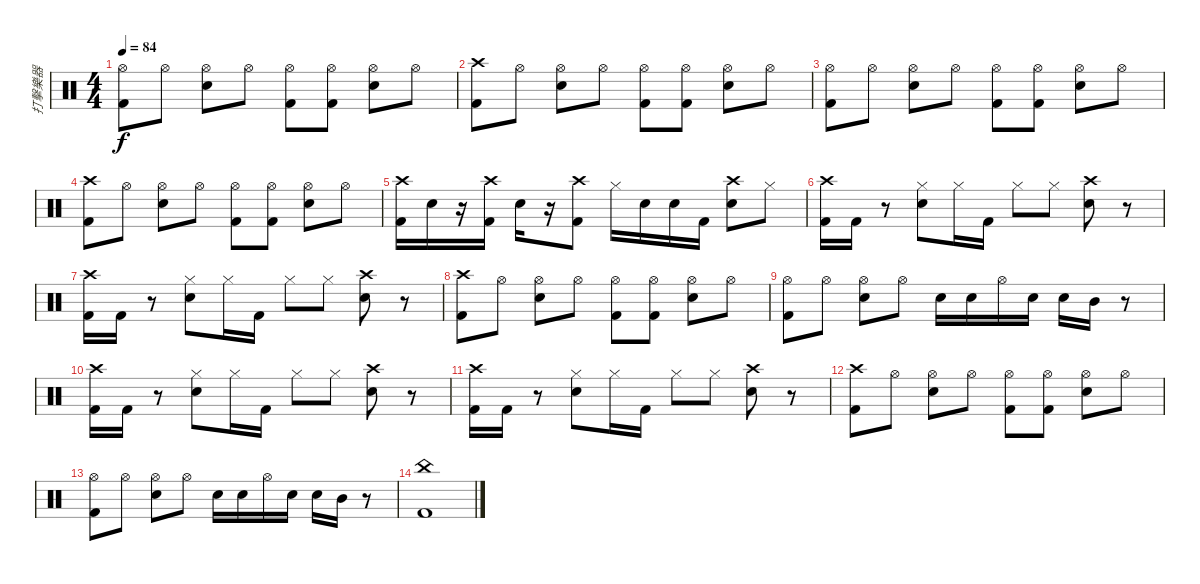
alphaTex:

\track ("打擊樂器" "打擊樂器") {instrument percussion}
\staff {score}
\articulation defaults
\ts (4 4)
\tempo 84
\clef neutral
\ks c
("Hi-Hat (open)" "Kick (hit) 2").8{dy f} "Hi-Hat (open)".8 ("Hi-Hat (open)" "Snare (hit) 2").8 "Hi-Hat (open)".8 ("Hi-Hat (open)" "Kick (hit) 2").8 ("Hi-Hat (open)" "Kick (hit) 2").8 ("Hi-Hat (open)" "Snare (hit) 2").8 "Hi-Hat (open)".8 |
("Crash high (hit)" "Kick (hit) 2").8 "Hi-Hat (open)".8 ("Hi-Hat (open)" "Snare (hit) 2").8 "Hi-Hat (open)".8 ("Hi-Hat (open)" "Kick (hit) 2").8 ("Hi-Hat (open)" "Kick (hit) 2").8 ("Hi-Hat (open)" "Snare (hit) 2").8 "Hi-Hat (open)".8 |
("Hi-Hat (open)" "Kick (hit) 2").8 "Hi-Hat (open)".8 ("Hi-Hat (open)" "Snare (hit) 2").8 "Hi-Hat (open)".8 ("Hi-Hat (open)" "Kick (hit) 2").8 ("Hi-Hat (open)" "Kick (hit) 2").8 ("Hi-Hat (open)" "Snare (hit) 2").8 "Hi-Hat (open)".8 |
("Crash high (hit)" "Kick (hit) 2").8 "Hi-Hat (open)".8 ("Hi-Hat (open)" "Snare (hit) 2").8 "Hi-Hat (open)".8 ("Hi-Hat (open)" "Kick (hit) 2").8 ("Hi-Hat (open)" "Kick (hit) 2").8 ("Hi-Hat (open)" "Snare (hit) 2").8 "Hi-Hat (open)".8 |
("Crash high (hit)" "Kick (hit) 2").16 "Snare (hit) 2".16 r.16 ("Crash high (hit)" "Kick (hit) 2").16 "Snare (hit) 2".16 r.16 ("Crash high (hit)" "Kick (hit) 2").8 "Hi-Hat (closed)".16 "Snare (hit) 2".16 "Snare (hit) 2".16 "Kick (hit) 2".16 ("Crash high (hit)" "Snare (hit) 2").8 "Hi-Hat (closed)".8 |
("Crash high (hit)" "Kick (hit) 2").16 "Kick (hit) 2".16 r.8 ("Hi-Hat (closed)" "Snare (hit) 2").8 "Hi-Hat (closed)".16 "Kick (hit) 2".16 "Hi-Hat (closed)".8 "Hi-Hat (closed)".8 ("Crash high (hit)" "Snare (hit) 2").8 r.8 |
("Crash high (hit)" "Kick (hit) 2").16 "Kick (hit) 2".16 r.8 ("Hi-Hat (closed)" "Snare (hit) 2").8 "Hi-Hat (closed)".16 "Kick (hit) 2".16 "Hi-Hat (closed)".8 "Hi-Hat (closed)".8 ("Crash high (hit)" "Snare (hit) 2").8 r.8 |
("Crash high (hit)" "Kick (hit) 2").8 "Hi-Hat (open)".8 ("Hi-Hat (open)" "Snare (hit) 2").8 "Hi-Hat (open)".8 ("Hi-Hat (open)" "Kick (hit) 2").8 ("Hi-Hat (open)" "Kick (hit) 2").8 ("Hi-Hat (open)" "Snare (hit) 2").8 "Hi-Hat (open)".8 |
("Hi-Hat (open)" "Kick (hit) 2").8 "Hi-Hat (open)".8 ("Hi-Hat (open)" "Snare (hit) 2").8 "Hi-Hat (open)".8 "Snare (hit) 2".16 "Snare (hit) 2".16 "Hi-Hat (open)".16 "Snare (hit) 2".16 "Snare (hit) 2".16 "Mid Tom (hit)".16 r.8 |
("Crash high (hit)" "Kick (hit) 2").16 "Kick (hit) 2".16 r.8 ("Hi-Hat (closed)" "Snare (hit) 2").8 "Hi-Hat (closed)".16 "Kick (hit) 2".16 "Hi-Hat (closed)".8 "Hi-Hat (closed)".8 ("Crash high (hit)" "Snare (hit) 2").8 r.8 |
("Crash high (hit)" "Kick (hit) 2").16 "Kick (hit) 2".16 r.8 ("Hi-Hat (closed)" "Snare (hit) 2").8 "Hi-Hat (closed)".16 "Kick (hit) 2".16 "Hi-Hat (closed)".8 "Hi-Hat (closed)".8 ("Crash high (hit)" "Snare (hit) 2").8 r.8 |
("Crash high (hit)" "Kick (hit) 2").8 "Hi-Hat (open)".8 ("Hi-Hat (open)" "Snare (hit) 2").8 "Hi-Hat (open)".8 ("Hi-Hat (open)" "Kick (hit) 2").8 ("Hi-Hat (open)" "Kick (hit) 2").8 ("Hi-Hat (open)" "Snare (hit) 2").8 "Hi-Hat (open)".8 |
("Hi-Hat (open)" "Kick (hit) 2").8 "Hi-Hat (open)".8 ("Hi-Hat (open)" "Snare (hit) 2").8 "Hi-Hat (open)".8 "Snare (hit) 2".16 "Snare (hit) 2".16 "Hi-Hat (open)".16 "Snare (hit) 2".16 "Snare (hit) 2".16 "Mid Tom (hit)".16 r.8 |
("China (hit)" "Kick (hit) 2").1
